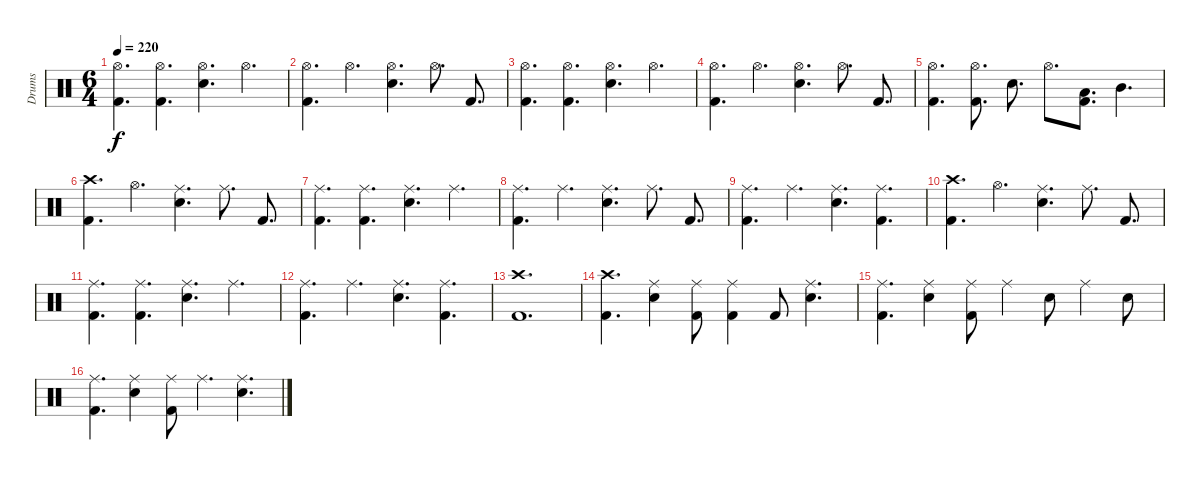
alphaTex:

\track ("Drums" "Drums") {instrument percussion}
\staff {score}
\articulation defaults
\ts (6 4)
\tempo 220
\clef neutral
\ks c
("Hi-Hat (open)" "Kick (hit) 2").4{d dy f} ("Hi-Hat (open)" "Kick (hit) 2").4{d} ("Hi-Hat (open)" "Electric Snare (hit)").4{d} "Hi-Hat (open)".4{d} |
("Hi-Hat (open)" "Kick (hit) 2").4{d} "Hi-Hat (open)".4{d} ("Hi-Hat (open)" "Electric Snare (hit)").4{d} "Hi-Hat (open)".8{d} "Kick (hit) 2".8{d} |
("Hi-Hat (open)" "Kick (hit) 2").4{d} ("Hi-Hat (open)" "Kick (hit) 2").4{d} ("Hi-Hat (open)" "Electric Snare (hit)").4{d} "Hi-Hat (open)".4{d} |
("Hi-Hat (open)" "Kick (hit) 2").4{d} "Hi-Hat (open)".4{d} ("Hi-Hat (open)" "Electric Snare (hit)").4{d} "Hi-Hat (open)".8{d} "Kick (hit) 2".8{d} |
("Hi-Hat (open)" "Kick (hit) 2").4{d} ("Hi-Hat (open)" "Kick (hit) 2").8{d} "Electric Snare (hit)".8{d} "Hi-Hat (open)".8{d} ("Low Tom (hit)" "Kick (hit) 2").8{d} "Mid Tom (hit)".4{d} |
("Crash high (hit)" "Kick (hit) 2").4{d} "Hi-Hat (open)".4{d} ("Ride (middle)" "Electric Snare (hit)").4{d} "Ride (middle)".8{d} "Kick (hit) 2".8{d} |
("Ride (middle)" "Kick (hit) 2").4{d} ("Ride (middle)" "Kick (hit) 2").4{d} ("Ride (middle)" "Electric Snare (hit)").4{d} "Ride (middle)".4{d} |
("Ride (middle)" "Kick (hit) 2").4{d} "Ride (middle)".4{d} ("Ride (middle)" "Electric Snare (hit)").4{d} "Ride (middle)".8{d} "Kick (hit) 2".8{d} |
("Ride (middle)" "Kick (hit) 2").4{d} "Ride (middle)".4{d} ("Ride (middle)" "Electric Snare (hit)").4{d} ("Ride (middle)" "Kick (hit) 2").4{d} |
("Crash high (hit)" "Kick (hit) 2").4{d} "Hi-Hat (open)".4{d} ("Ride (middle)" "Electric Snare (hit)").4{d} "Ride (middle)".8{d} "Kick (hit) 2".8{d} |
("Ride (middle)" "Kick (hit) 2").4{d} ("Ride (middle)" "Kick (hit) 2").4{d} ("Ride (middle)" "Electric Snare (hit)").4{d} "Ride (middle)".4{d} |
("Ride (middle)" "Kick (hit) 2").4{d} "Ride (middle)".4{d} ("Ride (middle)" "Electric Snare (hit)").4{d} ("Ride (middle)" "Kick (hit) 2").4{d} |
("Crash high (hit)" "Kick (hit) 2").1{d} |
("Crash high (hit)" "Kick (hit) 2").4{d} ("Ride (middle)" "Electric Snare (hit)").4 ("Ride (middle)" "Kick (hit) 2").8 ("Ride (middle)" "Kick (hit) 2").4 "Kick (hit) 2".8 ("Ride (middle)" "Electric Snare (hit)").4{d} |
("Ride (middle)" "Kick (hit) 2").4{d} ("Ride (middle)" "Electric Snare (hit)").4 ("Ride (middle)" "Kick (hit) 2").8 "Ride (middle)".4 "Electric Snare (hit)".8 "Ride (middle)".4 "Electric Snare (hit)".8 |
("Ride (middle)" "Kick (hit) 2").4{d} ("Ride (middle)" "Electric Snare (hit)").4 ("Ride (middle)" "Kick (hit) 2").8 "Ride (middle)".4{d} ("Ride (middle)" "Electric Snare (hit)").4{d}
